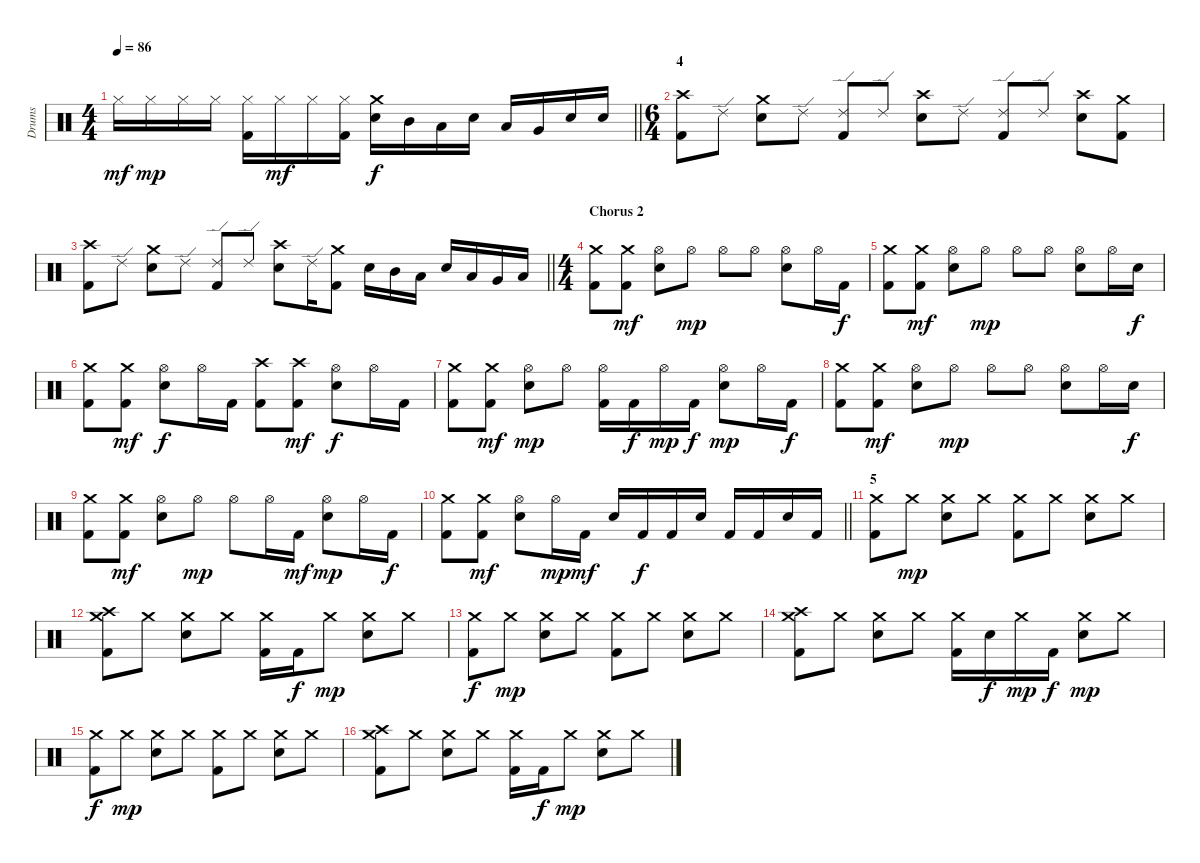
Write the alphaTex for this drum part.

\track ("Drums" "Drums") {instrument percussion}
\staff {score}
\articulation defaults
\ts (4 4)
\tempo 86
\clef neutral
\barLineRight lightlight
\ks c "Hi-Hat (closed)".16{dy mf} "Hi-Hat (closed)".16{dy mp} "Hi-Hat (closed)".16 "Hi-Hat (closed)".16
("Hi-Hat (closed)" "Kick (hit) 2").16 "Hi-Hat (closed)".16{dy mf} "Hi-Hat (closed)".16 ("Hi-Hat (closed)" "Kick (hit) 2").16 ("Crash medium (hit)" "Electric Snare (hit)").16{dy f} "Mid Tom (hit)".16 "Low Tom (hit)".16 "Electric Snare (hit)".16 "Low Tom (hit)".16 "Very Low Tom (hit)".16 "Electric Snare (hit)".16 "Electric Snare (hit)".16 |
\ts (6 4)
\section ("" "4")
("Crash high (hit)" "Kick (hit) 2").8 "Ride (edge) 2".8 ("Crash medium (hit)" "Electric Snare (hit)").8 "Ride (edge) 2".8 ("Ride (edge) 2" "Kick (hit) 2").8 "Ride (edge) 2".8 ("Crash high (hit)" "Electric Snare (hit)").8 "Ride (edge) 2".8 ("Ride (edge) 2" "Kick (hit) 2").8 "Ride (edge) 2".8 ("Crash high (hit)" "Electric Snare (hit)").8 ("Crash medium (hit)" "Kick (hit) 2").8 |
\barLineRight lightlight
("Crash high (hit)" "Kick (hit) 2").8 "Ride (edge) 2".8 ("Crash medium (hit)" "Electric Snare (hit)").8 "Ride (edge) 2".8 ("Ride (edge) 2" "Kick (hit) 2").8 "Ride (edge) 2".8 ("Crash high (hit)" "Electric Snare (hit)").8 "Ride (edge) 2".16 ("Crash medium (hit)" "Kick (hit) 2").8 "Electric Snare (hit)".16 "Mid Tom (hit)".16 "Low Tom (hit)".16 "Electric Snare (hit)".16 "Low Tom (hit)".16 "Very Low Tom (hit)".16 "Low Floor Tom (hit)".16 |
\ts (4 4)
\section ("" "Chorus 2")
("Crash medium (hit)" "Kick (hit) 2").8 ("Crash medium (hit)" "Kick (hit) 2").8{dy mf} ("Hi-Hat (open)" "Electric Snare (hit)").8 "Hi-Hat (open)".8{dy mp} "Hi-Hat (open)".8 "Hi-Hat (open)".8 ("Hi-Hat (open)" "Electric Snare (hit)").8 "Hi-Hat (open)".16 "Kick (hit) 2".16{dy f} |
("Crash medium (hit)" "Kick (hit) 2").8 ("Crash medium (hit)" "Kick (hit) 2").8{dy mf} ("Hi-Hat (open)" "Electric Snare (hit)").8 "Hi-Hat (open)".8{dy mp} "Hi-Hat (open)".8 "Hi-Hat (open)".8 ("Hi-Hat (open)" "Electric Snare (hit)").8 "Hi-Hat (open)".16 "Electric Snare (hit)".16{dy f} |
("Crash medium (hit)" "Kick (hit) 2").8 ("Crash medium (hit)" "Kick (hit) 2").8{dy mf} ("Hi-Hat (open)" "Electric Snare (hit)").8{dy f} "Hi-Hat (open)".16 "Kick (hit) 2".16 ("Crash high (hit)" "Kick (hit) 2").8 ("Crash high (hit)" "Kick (hit) 2").8{dy mf} ("Hi-Hat (open)" "Electric Snare (hit)").8{dy f} "Hi-Hat (open)".16 "Kick (hit) 2".16 |
("Crash medium (hit)" "Kick (hit) 2").8 ("Crash medium (hit)" "Kick (hit) 2").8{dy mf} ("Hi-Hat (open)" "Electric Snare (hit)").8{dy mp} "Hi-Hat (open)".8 ("Hi-Hat (open)" "Kick (hit) 2").16 "Kick (hit) 2".16{dy f} "Hi-Hat (open)".16{dy mp} "Kick (hit) 2".16{dy f} ("Hi-Hat (open)" "Electric Snare (hit)").8{dy mp} "Hi-Hat (open)".16 "Kick (hit) 2".16{dy f} |
("Crash medium (hit)" "Kick (hit) 2").8 ("Crash medium (hit)" "Kick (hit) 2").8{dy mf} ("Hi-Hat (open)" "Electric Snare (hit)").8 "Hi-Hat (open)".8{dy mp} "Hi-Hat (open)".8 "Hi-Hat (open)".8 ("Hi-Hat (open)" "Electric Snare (hit)").8 "Hi-Hat (open)".16 "Electric Snare (hit)".16{dy f} |
("Crash medium (hit)" "Kick (hit) 2").8 ("Crash medium (hit)" "Kick (hit) 2").8{dy mf} ("Hi-Hat (open)" "Electric Snare (hit)").8 "Hi-Hat (open)".8{dy mp} "Hi-Hat (open)".8 "Hi-Hat (open)".16 "Kick (hit) 2".16{dy mf} ("Hi-Hat (open)" "Electric Snare (hit)").8{dy mp} "Hi-Hat (open)".16 "Kick (hit) 2".16{dy f} |
\barLineRight lightlight
("Crash medium (hit)" "Kick (hit) 2").8 ("Crash medium (hit)" "Kick (hit) 2").8{dy mf} ("Hi-Hat (open)" "Electric Snare (hit)").8 "Hi-Hat (open)".16{dy mp} "Kick (hit) 2".16{dy mf} "Electric Snare (hit)".16 "Kick (hit) 2".16{dy f} "Kick (hit) 2".16 "Electric Snare (hit)".16 "Kick (hit) 2".16 "Kick (hit) 2".16 "Electric Snare (hit)".16 "Kick (hit) 2".16 |
\section ("" "5")
("Crash medium (hit)" "Kick (hit) 2").8 "Crash medium (hit)".8{dy mp} ("Crash medium (hit)" "Electric Snare (hit)").8 "Crash medium (hit)".8 ("Crash medium (hit)" "Kick (hit) 2").8 "Crash medium (hit)".8 ("Crash medium (hit)" "Electric Snare (hit)").8 "Crash medium (hit)".8 |
("Crash medium (hit)" "Crash high (hit)" "Kick (hit) 2").8 "Crash medium (hit)".8 ("Crash medium (hit)" "Electric Snare (hit)").8 "Crash medium (hit)".8 ("Crash medium (hit)" "Kick (hit) 2").16 "Kick (hit) 2".16{dy f} "Crash medium (hit)".8{dy mp} ("Crash medium (hit)" "Electric Snare (hit)").8 "Crash medium (hit)".8 |
("Crash medium (hit)" "Kick (hit) 2").8{dy f} "Crash medium (hit)".8{dy mp} ("Crash medium (hit)" "Electric Snare (hit)").8 "Crash medium (hit)".8 ("Crash medium (hit)" "Kick (hit) 2").8 "Crash medium (hit)".8 ("Crash medium (hit)" "Electric Snare (hit)").8 "Crash medium (hit)".8 |
("Crash medium (hit)" "Crash high (hit)" "Kick (hit) 2").8 "Crash medium (hit)".8 ("Crash medium (hit)" "Electric Snare (hit)").8 "Crash medium (hit)".8 ("Crash medium (hit)" "Kick (hit) 2").16 "Electric Snare (hit)".16{dy f} "Crash medium (hit)".16{dy mp} "Kick (hit) 2".16{dy f} ("Crash medium (hit)" "Electric Snare (hit)").8{dy mp} "Crash medium (hit)".8 |
("Crash medium (hit)" "Kick (hit) 2").8{dy f} "Crash medium (hit)".8{dy mp} ("Crash medium (hit)" "Electric Snare (hit)").8 "Crash medium (hit)".8 ("Crash medium (hit)" "Kick (hit) 2").8 "Crash medium (hit)".8 ("Crash medium (hit)" "Electric Snare (hit)").8 "Crash medium (hit)".8 |
("Crash medium (hit)" "Crash high (hit)" "Kick (hit) 2").8 "Crash medium (hit)".8 ("Crash medium (hit)" "Electric Snare (hit)").8 "Crash medium (hit)".8 ("Crash medium (hit)" "Kick (hit) 2").16 "Kick (hit) 2".16{dy f} "Crash medium (hit)".8{dy mp} ("Crash medium (hit)" "Electric Snare (hit)").8 "Crash medium (hit)".8
